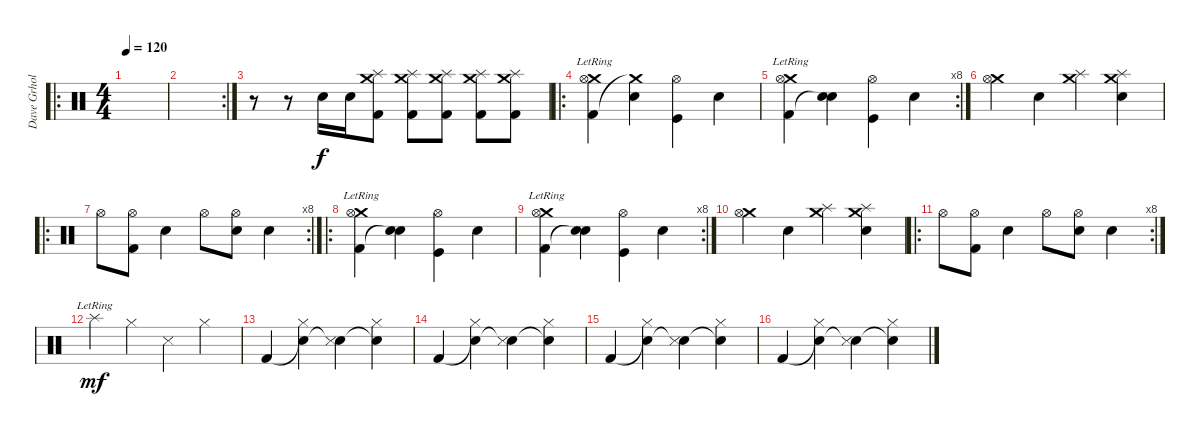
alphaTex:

\track ("Dave Grhol" "Dave Grhol") {instrument percussion}
\staff {score}
\articulation defaults
\ro
\ts (4 4)
\tempo 120
\clef neutral
\ks c
|
\rc 2
|
r.8 r.8 "Snare (hit) 2".16 "Snare (hit) 2".16 ("Kick (hit) 2" "Splash (hit)" "Crash medium (hit)").8 ("Kick (hit) 2" "Splash (hit)" "Crash medium (hit)").8 ("Kick (hit) 2" "Splash (hit)" "Crash medium (hit)").8 ("Kick (hit) 2" "Splash (hit)" "Crash medium (hit)").8 ("Kick (hit) 2" "Splash (hit)" "Crash medium (hit)").8 |
\ro
("Kick (hit) 2" "Crash medium (hit)"{lr} "Hi-Hat (open)").4 ("Crash medium (hit)"{t} "Snare (hit) 2").4 ("Kick (hit)" "Hi-Hat (open)").4 "Snare (hit) 2".4 |
\rc 8
("Kick (hit) 2" "Crash medium (hit)"{lr} "Hi-Hat (open)").4 ("Snare (hit)"{t} "Snare (hit) 2").4 ("Kick (hit)" "Hi-Hat (open)").4 "Snare (hit) 2".4 |
("Crash medium (hit)" "Hi-Hat (open)").4 "Snare (hit) 2".4 ("Crash medium (hit)" "Splash (hit)").4 ("Crash medium (hit)" "Splash (hit)" "Snare (hit) 2").4 |
\ro
\rc 8 "Hi-Hat (open)".8
("Hi-Hat (open)" "Kick (hit) 2").8 "Snare (hit) 2".4 "Hi-Hat (open)".8 ("Hi-Hat (open)" "Snare (hit) 2").8 "Snare (hit) 2".4 |
\ro
("Kick (hit) 2" "Crash medium (hit)"{lr} "Hi-Hat (open)").4 ("Snare (hit)"{t} "Snare (hit) 2").4 ("Kick (hit)" "Hi-Hat (open)").4 "Snare (hit) 2".4 |
\rc 8
("Kick (hit) 2" "Crash medium (hit)"{lr} "Hi-Hat (open)").4 ("Snare (hit)"{t} "Snare (hit) 2").4 ("Kick (hit)" "Hi-Hat (open)").4 "Snare (hit) 2".4 |
("Crash medium (hit)" "Hi-Hat (open)").4 "Snare (hit) 2".4 ("Crash medium (hit)" "Splash (hit)").4 ("Crash medium (hit)" "Splash (hit)" "Snare (hit) 2").4 |
\ro
\rc 8 "Hi-Hat (open)".8
("Hi-Hat (open)" "Kick (hit) 2").8 "Snare (hit) 2".4 "Hi-Hat (open)".8 ("Hi-Hat (open)" "Snare (hit) 2").8 "Snare (hit) 2".4 |
"Splash (hit)"{lr}.4{dy mf} "Hi-Hat (closed)".4 "Snare (side stick) 3".4 "Hi-Hat (closed)".4 |
"Kick (hit) 2".4 ("Snare (hit)"{t} "Hi-Hat (closed)").4 ("Snare (hit)"{t} "Snare (side stick) 3").4 ("Snare (hit)"{t} "Hi-Hat (closed)").4 |
"Kick (hit) 2".4 ("Snare (hit)"{t} "Hi-Hat (closed)").4 ("Snare (hit)"{t} "Snare (side stick) 3").4 ("Snare (hit)"{t} "Hi-Hat (closed)").4 |
"Kick (hit) 2".4 ("Snare (hit)"{t} "Hi-Hat (closed)").4 ("Snare (hit)"{t} "Snare (side stick) 3").4 ("Snare (hit)"{t} "Hi-Hat (closed)").4 |
"Kick (hit) 2".4 ("Snare (hit)"{t} "Hi-Hat (closed)").4 ("Snare (hit)"{t} "Snare (side stick) 3").4 ("Snare (hit)"{t} "Hi-Hat (closed)").4
